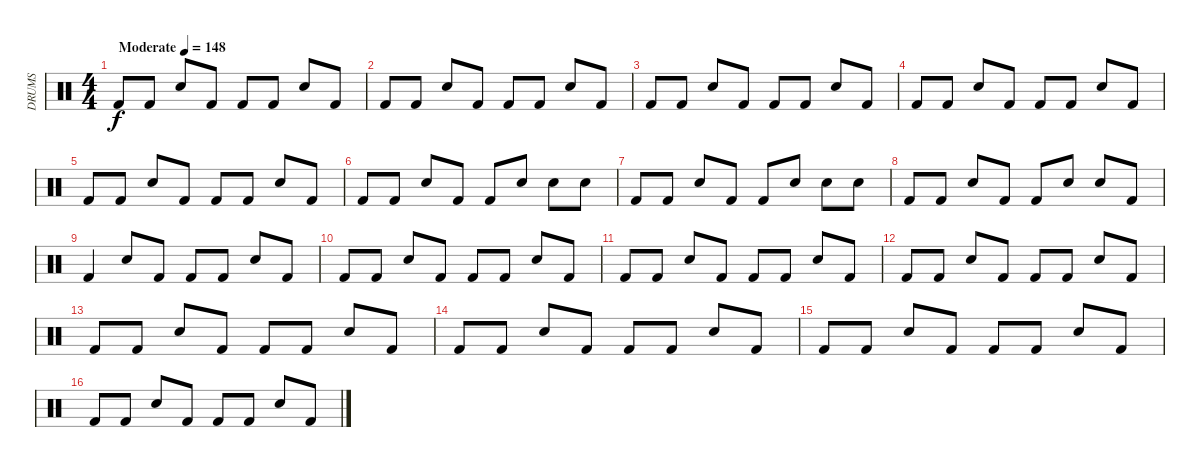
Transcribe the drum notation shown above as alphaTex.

\track ("DRUMS" "DRUMS") {instrument percussion}
\staff {score}
\articulation defaults
\ts (4 4)
\tempo (148 "Moderate")
\clef neutral
\ks c "Kick (hit) 2".8{dy f} "Kick (hit) 2".8 "Snare (hit) 2".8 "Kick (hit) 2".8 "Kick (hit) 2".8 "Kick (hit) 2".8 "Snare (hit) 2".8 "Kick (hit) 2".8
|
"Kick (hit) 2".8 "Kick (hit) 2".8 "Snare (hit) 2".8 "Kick (hit) 2".8 "Kick (hit) 2".8 "Kick (hit) 2".8 "Snare (hit) 2".8 "Kick (hit) 2".8 |
"Kick (hit) 2".8 "Kick (hit) 2".8 "Snare (hit) 2".8 "Kick (hit) 2".8 "Kick (hit) 2".8 "Kick (hit) 2".8 "Snare (hit) 2".8 "Kick (hit) 2".8 |
"Kick (hit) 2".8 "Kick (hit) 2".8 "Snare (hit) 2".8 "Kick (hit) 2".8 "Kick (hit) 2".8 "Kick (hit) 2".8 "Snare (hit) 2".8 "Kick (hit) 2".8 |
"Kick (hit) 2".8 "Kick (hit) 2".8 "Snare (hit) 2".8 "Kick (hit) 2".8 "Kick (hit) 2".8 "Kick (hit) 2".8 "Snare (hit) 2".8 "Kick (hit) 2".8 |
"Kick (hit) 2".8 "Kick (hit) 2".8 "Snare (hit) 2".8 "Kick (hit) 2".8 "Kick (hit) 2".8 "Snare (hit) 2".8 "Snare (hit) 2".8 "Snare (hit) 2".8 |
"Kick (hit) 2".8 "Kick (hit) 2".8 "Snare (hit) 2".8 "Kick (hit) 2".8 "Kick (hit) 2".8 "Snare (hit) 2".8 "Snare (hit) 2".8 "Snare (hit) 2".8 |
"Kick (hit) 2".8 "Kick (hit) 2".8 "Snare (hit) 2".8 "Kick (hit) 2".8 "Kick (hit) 2".8 "Snare (hit) 2".8 "Snare (hit) 2".8 "Kick (hit) 2".8 |
"Kick (hit) 2".4 "Snare (hit) 2".8 "Kick (hit) 2".8 "Kick (hit) 2".8 "Kick (hit) 2".8 "Snare (hit) 2".8 "Kick (hit) 2".8 |
"Kick (hit) 2".8 "Kick (hit) 2".8 "Snare (hit) 2".8 "Kick (hit) 2".8 "Kick (hit) 2".8 "Kick (hit) 2".8 "Snare (hit) 2".8 "Kick (hit) 2".8 |
"Kick (hit) 2".8 "Kick (hit) 2".8 "Snare (hit) 2".8 "Kick (hit) 2".8 "Kick (hit) 2".8 "Kick (hit) 2".8 "Snare (hit) 2".8 "Kick (hit) 2".8 |
"Kick (hit) 2".8 "Kick (hit) 2".8 "Snare (hit) 2".8 "Kick (hit) 2".8 "Kick (hit) 2".8 "Kick (hit) 2".8 "Snare (hit) 2".8 "Kick (hit) 2".8 |
"Kick (hit) 2".8 "Kick (hit) 2".8 "Snare (hit) 2".8 "Kick (hit) 2".8 "Kick (hit) 2".8 "Kick (hit) 2".8 "Snare (hit) 2".8 "Kick (hit) 2".8 |
"Kick (hit) 2".8 "Kick (hit) 2".8 "Snare (hit) 2".8 "Kick (hit) 2".8 "Kick (hit) 2".8 "Kick (hit) 2".8 "Snare (hit) 2".8 "Kick (hit) 2".8 |
"Kick (hit) 2".8 "Kick (hit) 2".8 "Snare (hit) 2".8 "Kick (hit) 2".8 "Kick (hit) 2".8 "Kick (hit) 2".8 "Snare (hit) 2".8 "Kick (hit) 2".8 |
"Kick (hit) 2".8 "Kick (hit) 2".8 "Snare (hit) 2".8 "Kick (hit) 2".8 "Kick (hit) 2".8 "Kick (hit) 2".8 "Snare (hit) 2".8 "Kick (hit) 2".8
